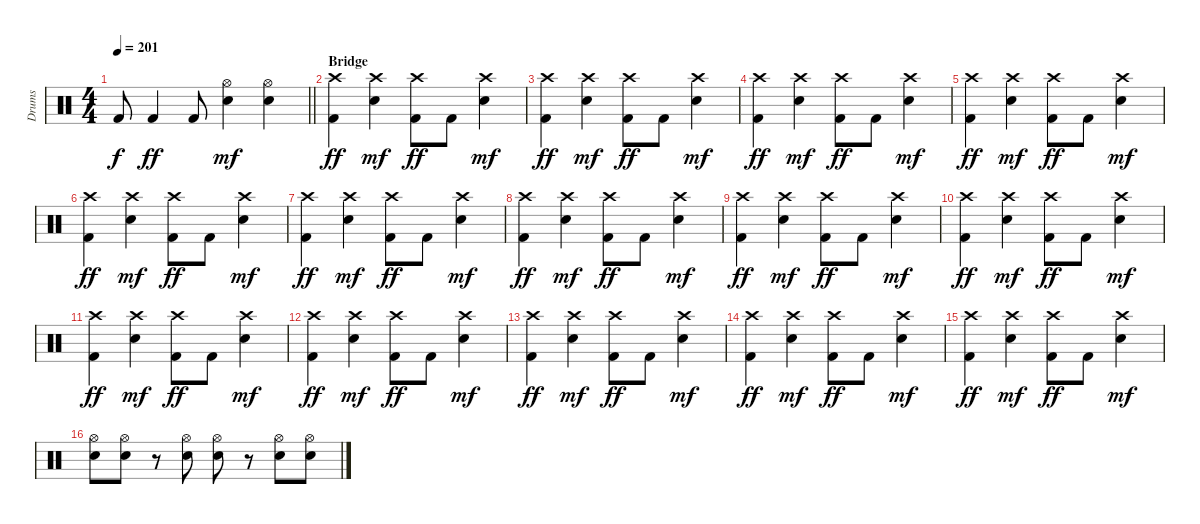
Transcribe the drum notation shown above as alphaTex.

\track ("Drums" "Drums") {instrument percussion}
\staff {score}
\articulation defaults
\ts (4 4)
\tempo 201
\clef neutral
\barLineRight lightlight
\ks c "Kick (hit) 2"{t}.8{dy f} "Kick (hit) 2".4{dy ff} "Kick (hit) 2".8
("Hi-Hat (open)" "Snare (hit) 2").4{dy mf} ("Hi-Hat (open)" "Snare (hit) 2").4 |
\section ("" "Bridge")
("Crash high (hit)" "Kick (hit) 2").4{dy ff} ("Crash high (hit)" "Snare (hit) 2").4{dy mf} ("Crash high (hit)" "Kick (hit) 2").8{dy ff} "Kick (hit) 2".8 ("Crash high (hit)" "Snare (hit) 2").4{dy mf} |
("Crash high (hit)" "Kick (hit) 2").4{dy ff} ("Crash high (hit)" "Snare (hit) 2").4{dy mf} ("Crash high (hit)" "Kick (hit) 2").8{dy ff} "Kick (hit) 2".8 ("Crash high (hit)" "Snare (hit) 2").4{dy mf} |
("Crash high (hit)" "Kick (hit) 2").4{dy ff} ("Crash high (hit)" "Snare (hit) 2").4{dy mf} ("Crash high (hit)" "Kick (hit) 2").8{dy ff} "Kick (hit) 2".8 ("Crash high (hit)" "Snare (hit) 2").4{dy mf} |
("Crash high (hit)" "Kick (hit) 2").4{dy ff} ("Crash high (hit)" "Snare (hit) 2").4{dy mf} ("Crash high (hit)" "Kick (hit) 2").8{dy ff} "Kick (hit) 2".8 ("Crash high (hit)" "Snare (hit) 2").4{dy mf} |
("Crash high (hit)" "Kick (hit) 2").4{dy ff} ("Crash high (hit)" "Snare (hit) 2").4{dy mf} ("Crash high (hit)" "Kick (hit) 2").8{dy ff} "Kick (hit) 2".8 ("Crash high (hit)" "Snare (hit) 2").4{dy mf} |
("Crash high (hit)" "Kick (hit) 2").4{dy ff} ("Crash high (hit)" "Snare (hit) 2").4{dy mf} ("Crash high (hit)" "Kick (hit) 2").8{dy ff} "Kick (hit) 2".8 ("Crash high (hit)" "Snare (hit) 2").4{dy mf} |
("Crash high (hit)" "Kick (hit) 2").4{dy ff} ("Crash high (hit)" "Snare (hit) 2").4{dy mf} ("Crash high (hit)" "Kick (hit) 2").8{dy ff} "Kick (hit) 2".8 ("Crash high (hit)" "Snare (hit) 2").4{dy mf} |
("Crash high (hit)" "Kick (hit) 2").4{dy ff} ("Crash high (hit)" "Snare (hit) 2").4{dy mf} ("Crash high (hit)" "Kick (hit) 2").8{dy ff} "Kick (hit) 2".8 ("Crash high (hit)" "Snare (hit) 2").4{dy mf} |
("Crash high (hit)" "Kick (hit) 2").4{dy ff} ("Crash high (hit)" "Snare (hit) 2").4{dy mf} ("Crash high (hit)" "Kick (hit) 2").8{dy ff} "Kick (hit) 2".8 ("Crash high (hit)" "Snare (hit) 2").4{dy mf} |
("Crash high (hit)" "Kick (hit) 2").4{dy ff} ("Crash high (hit)" "Snare (hit) 2").4{dy mf} ("Crash high (hit)" "Kick (hit) 2").8{dy ff} "Kick (hit) 2".8 ("Crash high (hit)" "Snare (hit) 2").4{dy mf} |
("Crash high (hit)" "Kick (hit) 2").4{dy ff} ("Crash high (hit)" "Snare (hit) 2").4{dy mf} ("Crash high (hit)" "Kick (hit) 2").8{dy ff} "Kick (hit) 2".8 ("Crash high (hit)" "Snare (hit) 2").4{dy mf} |
("Crash high (hit)" "Kick (hit) 2").4{dy ff} ("Crash high (hit)" "Snare (hit) 2").4{dy mf} ("Crash high (hit)" "Kick (hit) 2").8{dy ff} "Kick (hit) 2".8 ("Crash high (hit)" "Snare (hit) 2").4{dy mf} |
("Crash high (hit)" "Kick (hit) 2").4{dy ff} ("Crash high (hit)" "Snare (hit) 2").4{dy mf} ("Crash high (hit)" "Kick (hit) 2").8{dy ff} "Kick (hit) 2".8 ("Crash high (hit)" "Snare (hit) 2").4{dy mf} |
("Crash high (hit)" "Kick (hit) 2").4{dy ff} ("Crash high (hit)" "Snare (hit) 2").4{dy mf} ("Crash high (hit)" "Kick (hit) 2").8{dy ff} "Kick (hit) 2".8 ("Crash high (hit)" "Snare (hit) 2").4{dy mf} |
("Hi-Hat (open)" "Snare (hit) 2").8 ("Hi-Hat (open)" "Snare (hit) 2").8 r.8 ("Hi-Hat (open)" "Snare (hit) 2").8 ("Hi-Hat (open)" "Snare (hit) 2").8 r.8 ("Hi-Hat (open)" "Snare (hit) 2").8 ("Hi-Hat (open)" "Snare (hit) 2").8
